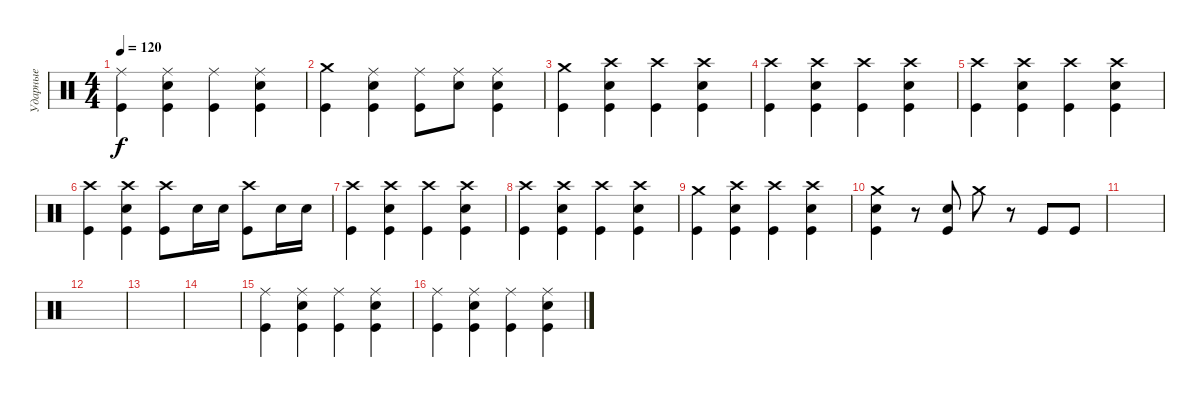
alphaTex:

\track ("Ударные" "Ударные") {instrument percussion}
\staff {score}
\articulation defaults
\ts (4 4)
\tempo 120
\clef neutral
\ks c
("Ride (middle)" "Kick (hit)").4{dy f} ("Ride (middle)" "Kick (hit)" "Snare (hit) 2").4 ("Ride (middle)" "Kick (hit)").4 ("Ride (middle)" "Kick (hit)" "Snare (hit) 2").4 |
("Crash medium (hit)" "Kick (hit)").4 ("Ride (middle)" "Kick (hit)" "Snare (hit) 2").4 ("Ride (middle)" "Kick (hit)").8 ("Ride (middle)" "Snare (hit) 2").8 ("Ride (middle)" "Kick (hit)" "Snare (hit) 2").4 |
("Crash medium (hit)" "Kick (hit)").4 ("Crash high (hit)" "Kick (hit)" "Snare (hit) 2").4 ("Crash high (hit)" "Kick (hit)").4 ("Crash high (hit)" "Kick (hit)" "Snare (hit) 2").4 |
("Crash high (hit)" "Kick (hit)").4 ("Crash high (hit)" "Kick (hit)" "Snare (hit) 2").4 ("Crash high (hit)" "Kick (hit)").4 ("Crash high (hit)" "Kick (hit)" "Snare (hit) 2").4 |
("Crash high (hit)" "Kick (hit)").4 ("Crash high (hit)" "Kick (hit)" "Snare (hit) 2").4 ("Crash high (hit)" "Kick (hit)").4 ("Crash high (hit)" "Kick (hit)" "Snare (hit) 2").4 |
("Crash high (hit)" "Kick (hit)").4 ("Crash high (hit)" "Kick (hit)" "Snare (hit) 2").4 ("Crash high (hit)" "Kick (hit)").8 "Snare (hit) 2".16 "Snare (hit) 2".16 ("Crash high (hit)" "Kick (hit)").8 "Snare (hit) 2".16 "Snare (hit) 2".16 |
("Crash high (hit)" "Kick (hit)").4 ("Crash high (hit)" "Kick (hit)" "Snare (hit) 2").4 ("Crash high (hit)" "Kick (hit)").4 ("Crash high (hit)" "Kick (hit)" "Snare (hit) 2").4 |
("Crash high (hit)" "Kick (hit)").4 ("Crash high (hit)" "Kick (hit)" "Snare (hit) 2").4 ("Crash high (hit)" "Kick (hit)").4 ("Crash high (hit)" "Kick (hit)" "Snare (hit) 2").4 |
("Crash medium (hit)" "Kick (hit)").4 ("Crash high (hit)" "Kick (hit)" "Snare (hit) 2").4 ("Crash high (hit)" "Kick (hit)").4 ("Crash high (hit)" "Kick (hit)" "Snare (hit) 2").4 |
("Crash medium (hit)" "Kick (hit)" "Snare (hit) 2").4 r.8 ("Kick (hit)" "Snare (hit) 2").8 "Crash medium (hit)".8 r.8 "Kick (hit)".8 "Kick (hit)".8 |
|
|
|
|
("Ride (middle)" "Kick (hit)").4 ("Ride (middle)" "Kick (hit)" "Snare (hit) 2").4 ("Ride (middle)" "Kick (hit)").4 ("Ride (middle)" "Kick (hit)" "Snare (hit) 2").4 |
("Ride (middle)" "Kick (hit)").4 ("Ride (middle)" "Kick (hit)" "Snare (hit) 2").4 ("Ride (middle)" "Kick (hit)").4 ("Ride (middle)" "Kick (hit)" "Snare (hit) 2").4
